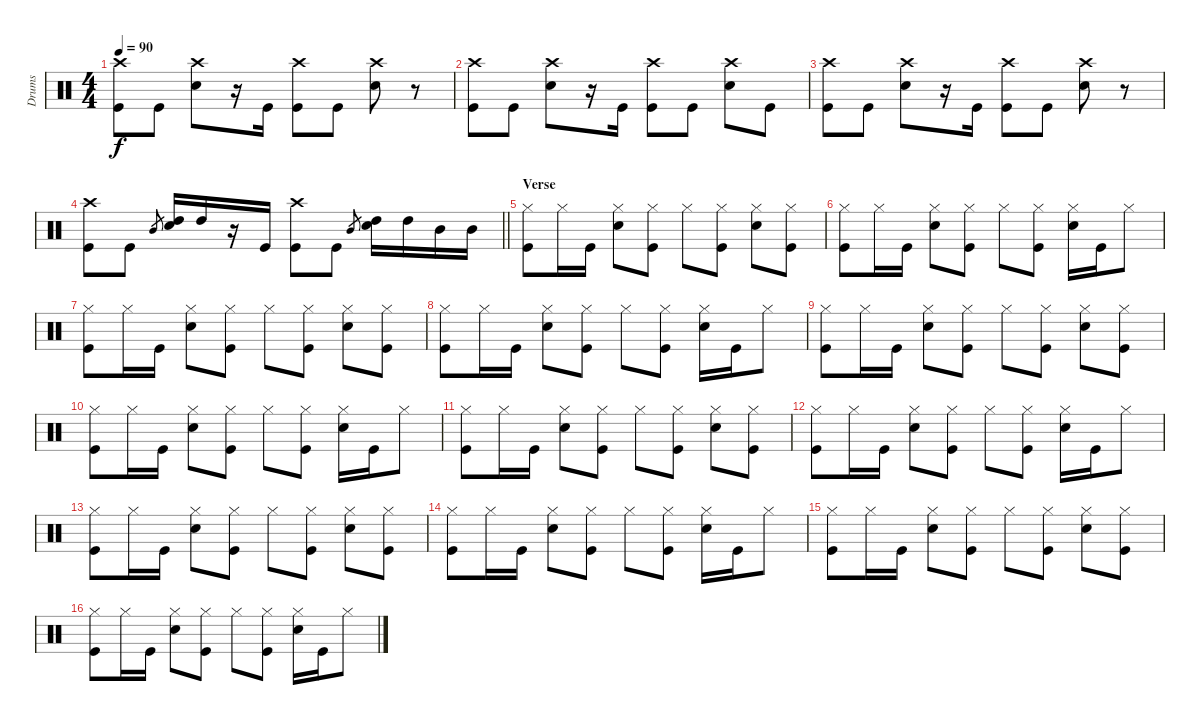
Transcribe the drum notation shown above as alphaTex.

\track ("Drums" "Drums") {instrument percussion}
\staff {score}
\articulation defaults
\ts (4 4)
\tempo 90
\clef neutral
\ks c
("Crash high (hit)" "Kick (hit)").8{dy f} "Kick (hit)".8 ("Crash high (hit)" "Electric Snare (hit)").8 r.16 "Kick (hit)".16 ("Crash high (hit)" "Kick (hit)").8 "Kick (hit)".8 ("Crash high (hit)" "Electric Snare (hit)").8 r.8 |
("Crash high (hit)" "Kick (hit)").8 "Kick (hit)".8 ("Crash high (hit)" "Electric Snare (hit)").8 r.16 "Kick (hit)".16 ("Crash high (hit)" "Kick (hit)").8 "Kick (hit)".8 ("Crash high (hit)" "Electric Snare (hit)").8 "Kick (hit)".8 |
("Crash high (hit)" "Kick (hit)").8 "Kick (hit)".8 ("Crash high (hit)" "Electric Snare (hit)").8 r.16 "Kick (hit)".16 ("Crash high (hit)" "Kick (hit)").8 "Kick (hit)".8 ("Crash high (hit)" "Electric Snare (hit)").8 r.8 |
\barLineRight lightlight
("Crash high (hit)" "Kick (hit)").8 "Kick (hit)".8 "Mid Tom (hit)".8{gr} ("High Tom (hit)" "Electric Snare (hit)").16 "High Tom (hit)".16 r.16 "Kick (hit)".16 ("Crash high (hit)" "Kick (hit)").8 "Kick (hit)".8 "Mid Tom (hit)".8{gr} ("High Tom (hit)" "Electric Snare (hit)").16 "High Tom (hit)".16 "Mid Tom (hit)".16 "Mid Tom (hit)".16 |
\section ("" "Verse ")
("Hi-Hat (closed)" "Kick (hit)").8 "Hi-Hat (closed)".16 "Kick (hit)".16 ("Hi-Hat (closed)" "Electric Snare (hit)").8 ("Hi-Hat (closed)" "Kick (hit)").8 "Hi-Hat (closed)".8 ("Hi-Hat (closed)" "Kick (hit)").8 ("Hi-Hat (closed)" "Electric Snare (hit)").8 ("Hi-Hat (closed)" "Kick (hit)").8 |
("Hi-Hat (closed)" "Kick (hit)").8 "Hi-Hat (closed)".16 "Kick (hit)".16 ("Hi-Hat (closed)" "Electric Snare (hit)").8 ("Hi-Hat (closed)" "Kick (hit)").8 "Hi-Hat (closed)".8 ("Hi-Hat (closed)" "Kick (hit)").8 ("Hi-Hat (closed)" "Electric Snare (hit)").16 "Kick (hit)".16 "Hi-Hat (closed)".8 |
("Hi-Hat (closed)" "Kick (hit)").8 "Hi-Hat (closed)".16 "Kick (hit)".16 ("Hi-Hat (closed)" "Electric Snare (hit)").8 ("Hi-Hat (closed)" "Kick (hit)").8 "Hi-Hat (closed)".8 ("Hi-Hat (closed)" "Kick (hit)").8 ("Hi-Hat (closed)" "Electric Snare (hit)").8 ("Hi-Hat (closed)" "Kick (hit)").8 |
("Hi-Hat (closed)" "Kick (hit)").8 "Hi-Hat (closed)".16 "Kick (hit)".16 ("Hi-Hat (closed)" "Electric Snare (hit)").8 ("Hi-Hat (closed)" "Kick (hit)").8 "Hi-Hat (closed)".8 ("Hi-Hat (closed)" "Kick (hit)").8 ("Hi-Hat (closed)" "Electric Snare (hit)").16 "Kick (hit)".16 "Hi-Hat (closed)".8 |
("Hi-Hat (closed)" "Kick (hit)").8 "Hi-Hat (closed)".16 "Kick (hit)".16 ("Hi-Hat (closed)" "Electric Snare (hit)").8 ("Hi-Hat (closed)" "Kick (hit)").8 "Hi-Hat (closed)".8 ("Hi-Hat (closed)" "Kick (hit)").8 ("Hi-Hat (closed)" "Electric Snare (hit)").8 ("Hi-Hat (closed)" "Kick (hit)").8 |
("Hi-Hat (closed)" "Kick (hit)").8 "Hi-Hat (closed)".16 "Kick (hit)".16 ("Hi-Hat (closed)" "Electric Snare (hit)").8 ("Hi-Hat (closed)" "Kick (hit)").8 "Hi-Hat (closed)".8 ("Hi-Hat (closed)" "Kick (hit)").8 ("Hi-Hat (closed)" "Electric Snare (hit)").16 "Kick (hit)".16 "Hi-Hat (closed)".8 |
("Hi-Hat (closed)" "Kick (hit)").8 "Hi-Hat (closed)".16 "Kick (hit)".16 ("Hi-Hat (closed)" "Electric Snare (hit)").8 ("Hi-Hat (closed)" "Kick (hit)").8 "Hi-Hat (closed)".8 ("Hi-Hat (closed)" "Kick (hit)").8 ("Hi-Hat (closed)" "Electric Snare (hit)").8 ("Hi-Hat (closed)" "Kick (hit)").8 |
("Hi-Hat (closed)" "Kick (hit)").8 "Hi-Hat (closed)".16 "Kick (hit)".16 ("Hi-Hat (closed)" "Electric Snare (hit)").8 ("Hi-Hat (closed)" "Kick (hit)").8 "Hi-Hat (closed)".8 ("Hi-Hat (closed)" "Kick (hit)").8 ("Hi-Hat (closed)" "Electric Snare (hit)").16 "Kick (hit)".16 "Hi-Hat (closed)".8 |
("Hi-Hat (closed)" "Kick (hit)").8 "Hi-Hat (closed)".16 "Kick (hit)".16 ("Hi-Hat (closed)" "Electric Snare (hit)").8 ("Hi-Hat (closed)" "Kick (hit)").8 "Hi-Hat (closed)".8 ("Hi-Hat (closed)" "Kick (hit)").8 ("Hi-Hat (closed)" "Electric Snare (hit)").8 ("Hi-Hat (closed)" "Kick (hit)").8 |
("Hi-Hat (closed)" "Kick (hit)").8 "Hi-Hat (closed)".16 "Kick (hit)".16 ("Hi-Hat (closed)" "Electric Snare (hit)").8 ("Hi-Hat (closed)" "Kick (hit)").8 "Hi-Hat (closed)".8 ("Hi-Hat (closed)" "Kick (hit)").8 ("Hi-Hat (closed)" "Electric Snare (hit)").16 "Kick (hit)".16 "Hi-Hat (closed)".8 |
("Hi-Hat (closed)" "Kick (hit)").8 "Hi-Hat (closed)".16 "Kick (hit)".16 ("Hi-Hat (closed)" "Electric Snare (hit)").8 ("Hi-Hat (closed)" "Kick (hit)").8 "Hi-Hat (closed)".8 ("Hi-Hat (closed)" "Kick (hit)").8 ("Hi-Hat (closed)" "Electric Snare (hit)").8 ("Hi-Hat (closed)" "Kick (hit)").8 |
("Hi-Hat (closed)" "Kick (hit)").8 "Hi-Hat (closed)".16 "Kick (hit)".16 ("Hi-Hat (closed)" "Electric Snare (hit)").8 ("Hi-Hat (closed)" "Kick (hit)").8 "Hi-Hat (closed)".8 ("Hi-Hat (closed)" "Kick (hit)").8 ("Hi-Hat (closed)" "Electric Snare (hit)").16 "Kick (hit)".16 "Hi-Hat (closed)".8
